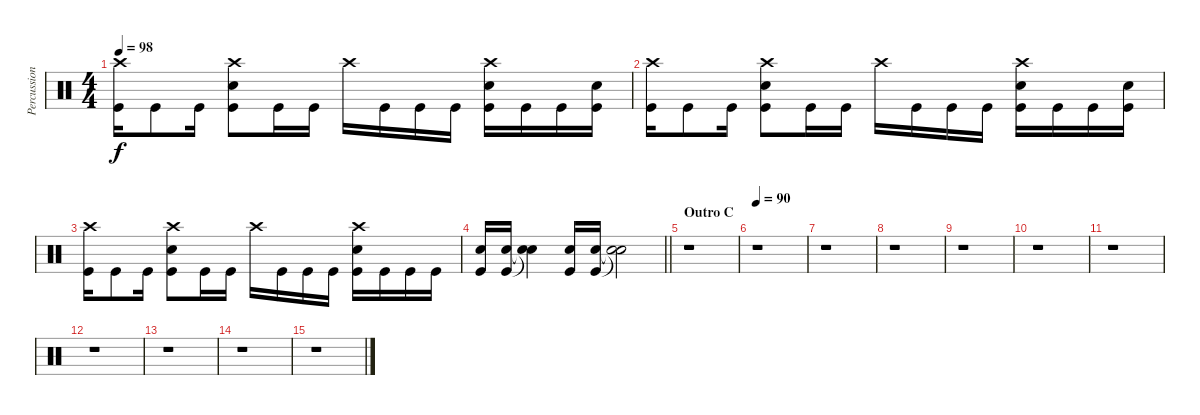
\track ("Percussion" "Percussion") {instrument percussion}
\staff {score}
\articulation defaults
\ts (4 4)
\tempo 98
\clef neutral
\ks c
("Crash high (hit)" "Kick (hit)").16{dy f} "Kick (hit)".8 "Kick (hit)".16 ("Crash high (hit)" "Electric Snare (hit)" "Kick (hit)").8 "Kick (hit)".16 "Kick (hit)".16 "Crash high (hit)".16 "Kick (hit)".16 "Kick (hit)".16 "Kick (hit)".16 ("Crash high (hit)" "Electric Snare (hit)" "Kick (hit)").16 "Kick (hit)".16 "Kick (hit)".16 ("Electric Snare (hit)" "Kick (hit)").16 |
("Crash high (hit)" "Kick (hit)").16 "Kick (hit)".8 "Kick (hit)".16 ("Crash high (hit)" "Electric Snare (hit)" "Kick (hit)").8 "Kick (hit)".16 "Kick (hit)".16 "Crash high (hit)".16 "Kick (hit)".16 "Kick (hit)".16 "Kick (hit)".16 ("Crash high (hit)" "Electric Snare (hit)" "Kick (hit)").16 "Kick (hit)".16 "Kick (hit)".16 ("Electric Snare (hit)" "Kick (hit)").16 |
("Crash high (hit)" "Kick (hit)").16 "Kick (hit)".8 "Kick (hit)".16 ("Crash high (hit)" "Electric Snare (hit)" "Kick (hit)").8 "Kick (hit)".16 "Kick (hit)".16 "Crash high (hit)".16 "Kick (hit)".16 "Kick (hit)".16 "Kick (hit)".16 ("Crash high (hit)" "Electric Snare (hit)" "Kick (hit)").16 "Kick (hit)".16 "Kick (hit)".16 "Kick (hit)".16 |
\barLineRight lightlight
("Electric Snare (hit)" "Kick (hit)").16 ("Electric Snare (hit)" "Kick (hit)").16 ("Snare (hit)"{t} "Snare (hit)"{t}).4 ("Electric Snare (hit)" "Kick (hit)").16 ("Electric Snare (hit)" "Kick (hit)").16 ("Snare (hit)"{t} "Snare (hit)"{t}).2 |
\section ("" "Outro C")
r.1 |
\tempo 90
r.1 |
r.1 |
r.1 |
r.1 |
r.1 |
r.1 |
r.1 |
r.1 |
r.1 |
r.1
